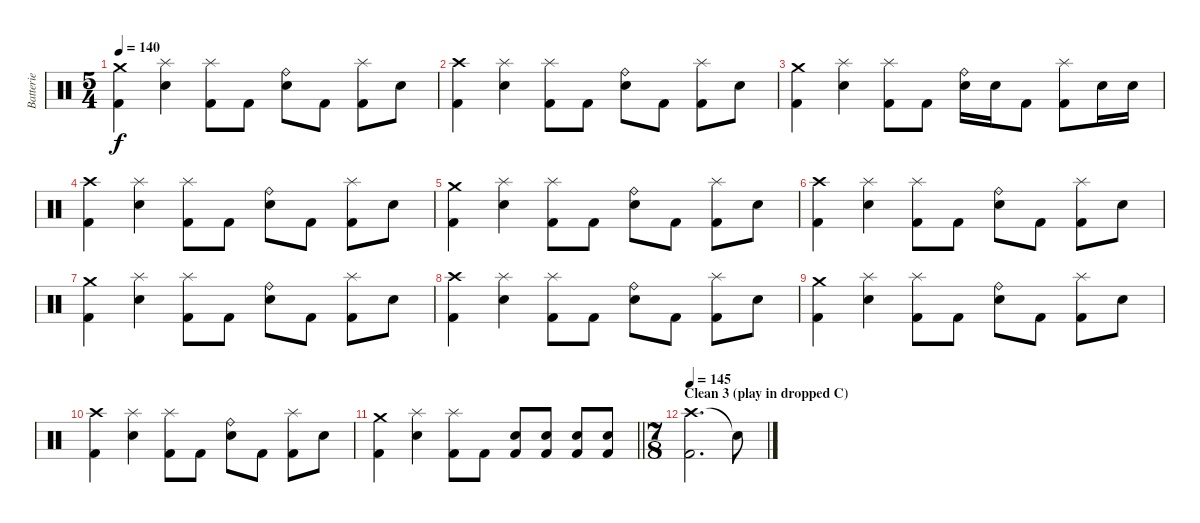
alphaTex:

\track ("Batterie" "Batterie") {instrument percussion}
\staff {score}
\articulation defaults
\ts (5 4)
\tempo 140
\clef neutral
\ks c
("Crash medium (hit)" "Kick (hit) 2").4{dy f} ("Splash (hit)" "Electric Snare (hit)").4 ("Splash (hit)" "Kick (hit) 2").8 "Kick (hit) 2".8 ("Ride (bell)" "Electric Snare (hit)").8 "Kick (hit) 2".8 ("Splash (hit)" "Kick (hit) 2").8 "Electric Snare (hit)".8 |
("Crash high (hit)" "Kick (hit) 2").4 ("Splash (hit)" "Electric Snare (hit)").4 ("Splash (hit)" "Kick (hit) 2").8 "Kick (hit) 2".8 ("Ride (bell)" "Electric Snare (hit)").8 "Kick (hit) 2".8 ("Splash (hit)" "Kick (hit) 2").8 "Electric Snare (hit)".8 |
("Crash medium (hit)" "Kick (hit) 2").4 ("Splash (hit)" "Electric Snare (hit)").4 ("Splash (hit)" "Kick (hit) 2").8 "Kick (hit) 2".8 ("Ride (bell)" "Electric Snare (hit)").16 "Electric Snare (hit)".16 "Kick (hit) 2".8 ("Splash (hit)" "Kick (hit) 2").8 "Electric Snare (hit)".16 "Electric Snare (hit)".16 |
("Crash high (hit)" "Kick (hit) 2").4 ("Splash (hit)" "Electric Snare (hit)").4 ("Splash (hit)" "Kick (hit) 2").8 "Kick (hit) 2".8 ("Ride (bell)" "Electric Snare (hit)").8 "Kick (hit) 2".8 ("Splash (hit)" "Kick (hit) 2").8 "Electric Snare (hit)".8 |
("Crash medium (hit)" "Kick (hit) 2").4 ("Splash (hit)" "Electric Snare (hit)").4 ("Splash (hit)" "Kick (hit) 2").8 "Kick (hit) 2".8 ("Ride (bell)" "Electric Snare (hit)").8 "Kick (hit) 2".8 ("Splash (hit)" "Kick (hit) 2").8 "Electric Snare (hit)".8 |
("Crash high (hit)" "Kick (hit) 2").4 ("Splash (hit)" "Electric Snare (hit)").4 ("Splash (hit)" "Kick (hit) 2").8 "Kick (hit) 2".8 ("Ride (bell)" "Electric Snare (hit)").8 "Kick (hit) 2".8 ("Splash (hit)" "Kick (hit) 2").8 "Electric Snare (hit)".8 |
("Crash medium (hit)" "Kick (hit) 2").4 ("Splash (hit)" "Electric Snare (hit)").4 ("Splash (hit)" "Kick (hit) 2").8 "Kick (hit) 2".8 ("Ride (bell)" "Electric Snare (hit)").8 "Kick (hit) 2".8 ("Splash (hit)" "Kick (hit) 2").8 "Electric Snare (hit)".8 |
("Crash high (hit)" "Kick (hit) 2").4 ("Splash (hit)" "Electric Snare (hit)").4 ("Splash (hit)" "Kick (hit) 2").8 "Kick (hit) 2".8 ("Ride (bell)" "Electric Snare (hit)").8 "Kick (hit) 2".8 ("Splash (hit)" "Kick (hit) 2").8 "Electric Snare (hit)".8 |
("Crash medium (hit)" "Kick (hit) 2").4 ("Splash (hit)" "Electric Snare (hit)").4 ("Splash (hit)" "Kick (hit) 2").8 "Kick (hit) 2".8 ("Ride (bell)" "Electric Snare (hit)").8 "Kick (hit) 2".8 ("Splash (hit)" "Kick (hit) 2").8 "Electric Snare (hit)".8 |
("Crash high (hit)" "Kick (hit) 2").4 ("Splash (hit)" "Electric Snare (hit)").4 ("Splash (hit)" "Kick (hit) 2").8 "Kick (hit) 2".8 ("Ride (bell)" "Electric Snare (hit)").8 "Kick (hit) 2".8 ("Splash (hit)" "Kick (hit) 2").8 "Electric Snare (hit)".8 |
\barLineRight lightlight
("Crash medium (hit)" "Kick (hit) 2").4 ("Splash (hit)" "Electric Snare (hit)").4 ("Splash (hit)" "Kick (hit) 2").8 "Kick (hit) 2".8 ("Electric Snare (hit)" "Kick (hit) 2").8 ("Electric Snare (hit)" "Kick (hit) 2").8 ("Electric Snare (hit)" "Kick (hit) 2").8 ("Electric Snare (hit)" "Kick (hit) 2").8 |
\ts (7 8)
\section ("" "Clean 3 (play in dropped C)")
\tempo 145
("Crash high (hit)" "Kick (hit) 2").2{d} "Snare (hit)"{t}.8
